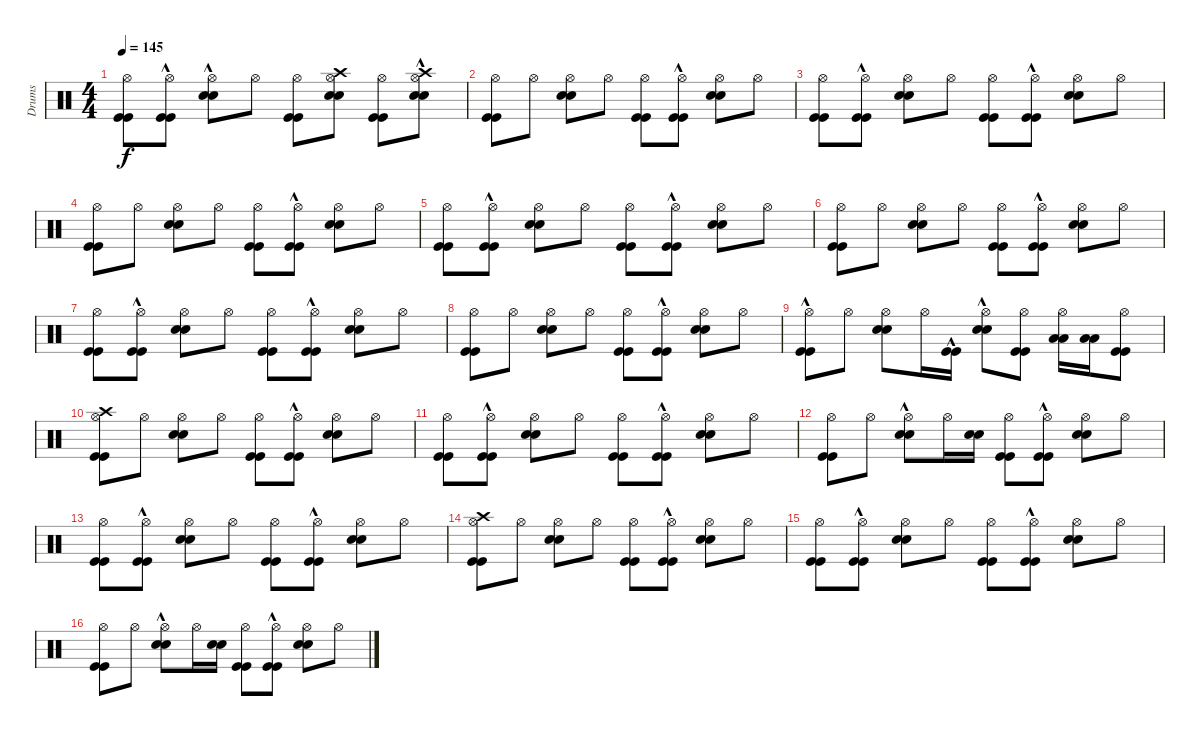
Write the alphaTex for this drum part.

\track ("Drums" "Drums") {instrument percussion}
\staff {score}
\articulation defaults
\ts (4 4)
\tempo 145
\clef neutral
\ks c
("Kick (hit)" "Kick (hit)" "Hi-Hat (open)").8{dy f} ("Kick (hit)"{hac} "Kick (hit)"{hac} "Hi-Hat (open)").8 ("Snare (hit) 2"{hac} "Snare (hit) 2"{hac} "Hi-Hat (open)").8 "Hi-Hat (open)".8 ("Kick (hit)" "Kick (hit)" "Hi-Hat (open)").8 ("Snare (hit) 2" "Snare (hit) 2" "Hi-Hat (open)" "Crash high (hit)").8 ("Kick (hit)" "Kick (hit)" "Hi-Hat (open)").8 ("Snare (hit) 2"{hac} "Snare (hit) 2"{hac} "Hi-Hat (open)" "Crash high (hit)").8 |
("Kick (hit)" "Kick (hit)" "Hi-Hat (open)").8 "Hi-Hat (open)".8 ("Snare (hit) 2" "Snare (hit) 2" "Hi-Hat (open)").8 "Hi-Hat (open)".8 ("Kick (hit)" "Kick (hit)" "Hi-Hat (open)").8 ("Kick (hit)"{hac} "Kick (hit)"{hac} "Hi-Hat (open)").8 ("Snare (hit) 2" "Snare (hit) 2" "Hi-Hat (open)").8 "Hi-Hat (open)".8 |
("Kick (hit)" "Kick (hit)" "Hi-Hat (open)").8 ("Kick (hit)"{hac} "Kick (hit)"{hac} "Hi-Hat (open)").8 ("Snare (hit) 2" "Snare (hit) 2" "Hi-Hat (open)").8 "Hi-Hat (open)".8 ("Kick (hit)" "Kick (hit)" "Hi-Hat (open)").8 ("Kick (hit)"{hac} "Kick (hit)"{hac} "Hi-Hat (open)").8 ("Snare (hit) 2" "Snare (hit) 2" "Hi-Hat (open)").8 "Hi-Hat (open)".8 |
("Kick (hit)" "Kick (hit)" "Hi-Hat (open)").8 "Hi-Hat (open)".8 ("Snare (hit) 2" "Snare (hit) 2" "Hi-Hat (open)").8 "Hi-Hat (open)".8 ("Kick (hit)" "Kick (hit)" "Hi-Hat (open)").8 ("Kick (hit)"{hac} "Kick (hit)"{hac} "Hi-Hat (open)").8 ("Snare (hit) 2" "Snare (hit) 2" "Hi-Hat (open)").8 "Hi-Hat (open)".8 |
("Kick (hit)" "Kick (hit)" "Hi-Hat (open)").8 ("Kick (hit)"{hac} "Kick (hit)"{hac} "Hi-Hat (open)").8 ("Snare (hit) 2" "Snare (hit) 2" "Hi-Hat (open)").8 "Hi-Hat (open)".8 ("Kick (hit)" "Kick (hit)" "Hi-Hat (open)").8 ("Kick (hit)"{hac} "Kick (hit)"{hac} "Hi-Hat (open)").8 ("Snare (hit) 2" "Snare (hit) 2" "Hi-Hat (open)").8 "Hi-Hat (open)".8 |
("Kick (hit)" "Kick (hit)" "Hi-Hat (open)").8 "Hi-Hat (open)".8 ("Snare (hit) 2" "Snare (hit) 2" "Hi-Hat (open)").8 "Hi-Hat (open)".8 ("Kick (hit)" "Kick (hit)" "Hi-Hat (open)").8 ("Kick (hit)"{hac} "Kick (hit)"{hac} "Hi-Hat (open)").8 ("Snare (hit) 2" "Snare (hit) 2" "Hi-Hat (open)").8 "Hi-Hat (open)".8 |
("Kick (hit)" "Kick (hit)" "Hi-Hat (open)").8 ("Kick (hit)"{hac} "Kick (hit)"{hac} "Hi-Hat (open)").8 ("Snare (hit) 2" "Snare (hit) 2" "Hi-Hat (open)").8 "Hi-Hat (open)".8 ("Kick (hit)" "Kick (hit)" "Hi-Hat (open)").8 ("Kick (hit)"{hac} "Kick (hit)"{hac} "Hi-Hat (open)").8 ("Snare (hit) 2" "Snare (hit) 2" "Hi-Hat (open)").8 "Hi-Hat (open)".8 |
("Kick (hit)" "Kick (hit)" "Hi-Hat (open)").8 "Hi-Hat (open)".8 ("Snare (hit) 2" "Snare (hit) 2" "Hi-Hat (open)").8 "Hi-Hat (open)".8 ("Kick (hit)" "Kick (hit)" "Hi-Hat (open)").8 ("Kick (hit)"{hac} "Kick (hit)"{hac} "Hi-Hat (open)").8 ("Snare (hit) 2" "Snare (hit) 2" "Hi-Hat (open)").8 "Hi-Hat (open)".8 |
("Kick (hit)"{hac} "Kick (hit)"{hac} "Hi-Hat (open)").8 "Hi-Hat (open)".8 ("Snare (hit) 2" "Snare (hit) 2" "Hi-Hat (open)").8 "Hi-Hat (open)".16 ("Kick (hit)"{hac} "Kick (hit)"{hac}).16 ("Snare (hit) 2"{hac} "Snare (hit) 2"{hac} "Hi-Hat (open)").8 ("Kick (hit)" "Kick (hit)" "Hi-Hat (open)").8 ("Low Tom (hit)" "Low Tom (hit)" "Hi-Hat (open)").16 ("Low Tom (hit)" "Low Tom (hit)").16 ("Kick (hit)" "Kick (hit)" "Hi-Hat (open)").8 |
("Kick (hit)" "Kick (hit)" "Hi-Hat (open)" "Crash high (hit)").8 "Hi-Hat (open)".8 ("Snare (hit) 2" "Snare (hit) 2" "Hi-Hat (open)").8 "Hi-Hat (open)".8 ("Kick (hit)" "Kick (hit)" "Hi-Hat (open)").8 ("Kick (hit)"{hac} "Kick (hit)"{hac} "Hi-Hat (open)").8 ("Snare (hit) 2" "Snare (hit) 2" "Hi-Hat (open)").8 "Hi-Hat (open)".8 |
("Kick (hit)" "Kick (hit)" "Hi-Hat (open)").8 ("Kick (hit)"{hac} "Kick (hit)"{hac} "Hi-Hat (open)").8 ("Snare (hit) 2" "Snare (hit) 2" "Hi-Hat (open)").8 "Hi-Hat (open)".8 ("Kick (hit)" "Kick (hit)" "Hi-Hat (open)").8 ("Kick (hit)"{hac} "Kick (hit)"{hac} "Hi-Hat (open)").8 ("Snare (hit) 2" "Snare (hit) 2" "Hi-Hat (open)").8 "Hi-Hat (open)".8 |
("Kick (hit)" "Kick (hit)" "Hi-Hat (open)").8 "Hi-Hat (open)".8 ("Snare (hit) 2"{hac} "Snare (hit) 2"{hac} "Hi-Hat (open)").8 "Hi-Hat (open)".16 ("Snare (hit) 2" "Snare (hit) 2").16 ("Kick (hit)" "Kick (hit)" "Hi-Hat (open)").8 ("Kick (hit)"{hac} "Kick (hit)"{hac} "Hi-Hat (open)").8 ("Snare (hit) 2" "Snare (hit) 2" "Hi-Hat (open)").8 "Hi-Hat (open)".8 |
("Kick (hit)" "Kick (hit)" "Hi-Hat (open)").8 ("Kick (hit)"{hac} "Kick (hit)"{hac} "Hi-Hat (open)").8 ("Snare (hit) 2" "Snare (hit) 2" "Hi-Hat (open)").8 "Hi-Hat (open)".8 ("Kick (hit)" "Kick (hit)" "Hi-Hat (open)").8 ("Kick (hit)"{hac} "Kick (hit)"{hac} "Hi-Hat (open)").8 ("Snare (hit) 2" "Snare (hit) 2" "Hi-Hat (open)").8 "Hi-Hat (open)".8 |
("Kick (hit)" "Kick (hit)" "Hi-Hat (open)" "Crash high (hit)").8 "Hi-Hat (open)".8 ("Snare (hit) 2" "Snare (hit) 2" "Hi-Hat (open)").8 "Hi-Hat (open)".8 ("Kick (hit)" "Kick (hit)" "Hi-Hat (open)").8 ("Kick (hit)"{hac} "Kick (hit)"{hac} "Hi-Hat (open)").8 ("Snare (hit) 2" "Snare (hit) 2" "Hi-Hat (open)").8 "Hi-Hat (open)".8 |
("Kick (hit)" "Kick (hit)" "Hi-Hat (open)").8 ("Kick (hit)"{hac} "Kick (hit)"{hac} "Hi-Hat (open)").8 ("Snare (hit) 2" "Snare (hit) 2" "Hi-Hat (open)").8 "Hi-Hat (open)".8 ("Kick (hit)" "Kick (hit)" "Hi-Hat (open)").8 ("Kick (hit)"{hac} "Kick (hit)"{hac} "Hi-Hat (open)").8 ("Snare (hit) 2" "Snare (hit) 2" "Hi-Hat (open)").8 "Hi-Hat (open)".8 |
("Kick (hit)" "Kick (hit)" "Hi-Hat (open)").8 "Hi-Hat (open)".8 ("Snare (hit) 2"{hac} "Snare (hit) 2"{hac} "Hi-Hat (open)").8 "Hi-Hat (open)".16 ("Snare (hit) 2" "Snare (hit) 2").16 ("Kick (hit)" "Kick (hit)" "Hi-Hat (open)").8 ("Kick (hit)"{hac} "Kick (hit)"{hac} "Hi-Hat (open)").8 ("Snare (hit) 2" "Snare (hit) 2" "Hi-Hat (open)").8 "Hi-Hat (open)".8
